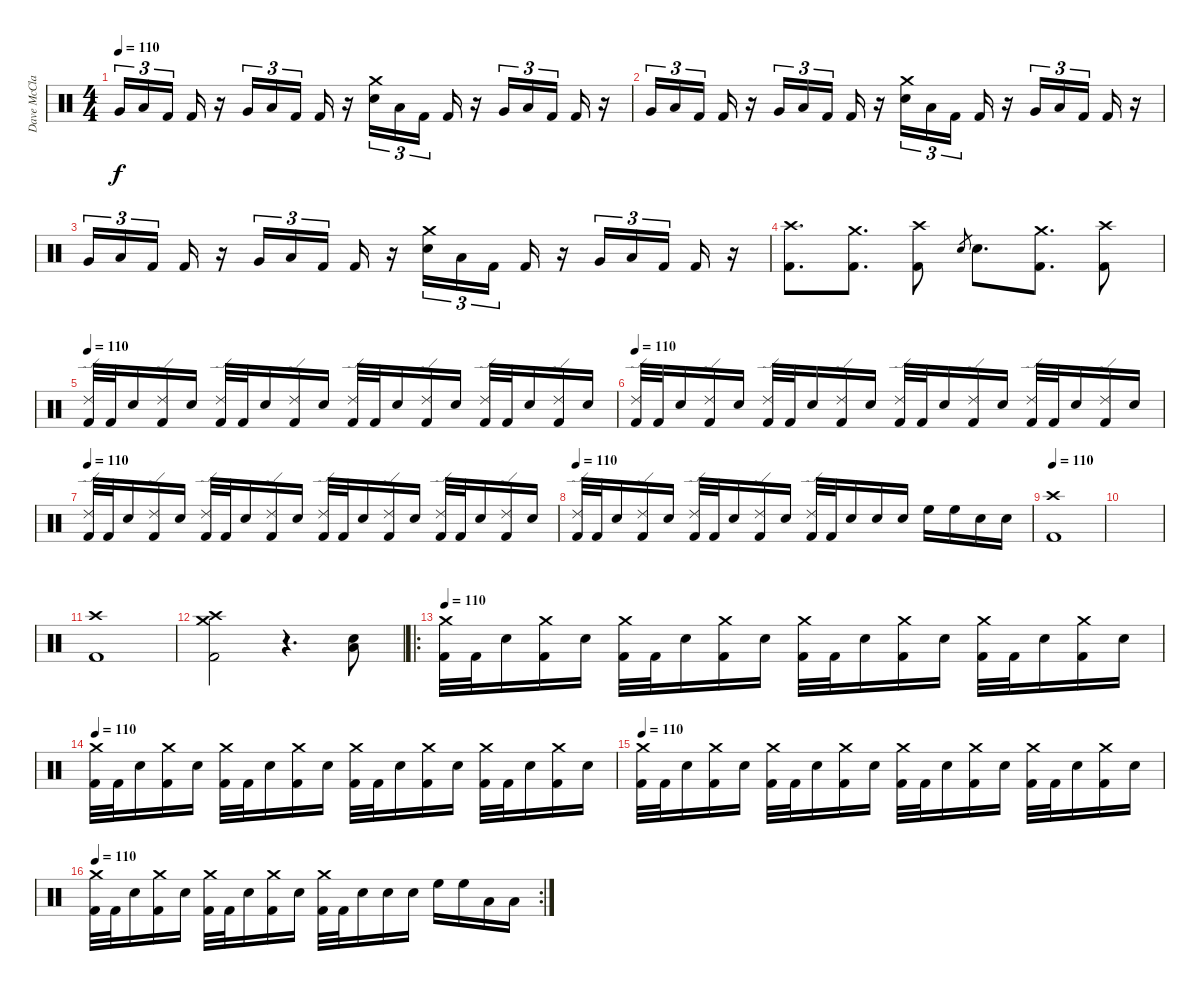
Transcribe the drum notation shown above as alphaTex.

\track ("Dave McClain" "Dave McCla") {instrument percussion}
\staff {score}
\articulation defaults
\ts (4 4)
\tempo 110
\clef neutral
\ks c "Very Low Tom (hit)".16{tu (3 2) dy f} "Low Floor Tom (hit)".16{tu (3 2)} "Kick (hit) 2".16{tu (3 2)} "Kick (hit) 2".16
r.16 "Very Low Tom (hit)".16{tu (3 2)} "Low Floor Tom (hit)".16{tu (3 2)} "Kick (hit) 2".16{tu (3 2)} "Kick (hit) 2".16 r.16 ("Crash medium (hit)" "Snare (hit) 2").16{tu (3 2)} "Low Floor Tom (hit)".16{tu (3 2)} "Kick (hit) 2".16{tu (3 2)} "Kick (hit) 2".16 r.16 "Very Low Tom (hit)".16{tu (3 2)} "Low Floor Tom (hit)".16{tu (3 2)} "Kick (hit) 2".16{tu (3 2)} "Kick (hit) 2".16 r.16 |
"Very Low Tom (hit)".16{tu (3 2)} "Low Floor Tom (hit)".16{tu (3 2)} "Kick (hit) 2".16{tu (3 2)} "Kick (hit) 2".16 r.16 "Very Low Tom (hit)".16{tu (3 2)} "Low Floor Tom (hit)".16{tu (3 2)} "Kick (hit) 2".16{tu (3 2)} "Kick (hit) 2".16 r.16 ("Crash medium (hit)" "Snare (hit) 2").16{tu (3 2)} "Low Floor Tom (hit)".16{tu (3 2)} "Kick (hit) 2".16{tu (3 2)} "Kick (hit) 2".16 r.16 "Very Low Tom (hit)".16{tu (3 2)} "Low Floor Tom (hit)".16{tu (3 2)} "Kick (hit) 2".16{tu (3 2)} "Kick (hit) 2".16 r.16 |
"Very Low Tom (hit)".16{tu (3 2)} "Low Floor Tom (hit)".16{tu (3 2)} "Kick (hit) 2".16{tu (3 2)} "Kick (hit) 2".16 r.16 "Very Low Tom (hit)".16{tu (3 2)} "Low Floor Tom (hit)".16{tu (3 2)} "Kick (hit) 2".16{tu (3 2)} "Kick (hit) 2".16 r.16 ("Crash medium (hit)" "Snare (hit) 2").16{tu (3 2)} "Low Floor Tom (hit)".16{tu (3 2)} "Kick (hit) 2".16{tu (3 2)} "Kick (hit) 2".16 r.16 "Very Low Tom (hit)".16{tu (3 2)} "Low Floor Tom (hit)".16{tu (3 2)} "Kick (hit) 2".16{tu (3 2)} "Kick (hit) 2".16 r.16 |
("Crash high (hit)" "Kick (hit) 2").8{d} ("Crash medium (hit)" "Kick (hit) 2").8{d} ("Crash high (hit)" "Kick (hit) 2").8 "Snare (hit) 2".8{gr} "Snare (hit) 2".8{d} ("Crash medium (hit)" "Kick (hit) 2").8{d} ("Crash high (hit)" "Kick (hit) 2").8 |
\tempo 110
("Ride (edge) 2" "Kick (hit) 2").32 "Kick (hit) 2".32 "Electric Snare (hit)".16 ("Ride (edge) 2" "Kick (hit) 2").16 "Electric Snare (hit)".16 ("Ride (edge) 2" "Kick (hit) 2").32 "Kick (hit) 2".32 "Electric Snare (hit)".16 ("Ride (edge) 2" "Kick (hit) 2").16 "Electric Snare (hit)".16 ("Ride (edge) 2" "Kick (hit) 2").32 "Kick (hit) 2".32 "Electric Snare (hit)".16 ("Ride (edge) 2" "Kick (hit) 2").16 "Electric Snare (hit)".16 ("Ride (edge) 2" "Kick (hit) 2").32 "Kick (hit) 2".32 "Electric Snare (hit)".16 ("Ride (edge) 2" "Kick (hit) 2").16 "Electric Snare (hit)".16 |
\tempo 110
("Ride (edge) 2" "Kick (hit) 2").32 "Kick (hit) 2".32 "Electric Snare (hit)".16 ("Ride (edge) 2" "Kick (hit) 2").16 "Electric Snare (hit)".16 ("Ride (edge) 2" "Kick (hit) 2").32 "Kick (hit) 2".32 "Electric Snare (hit)".16 ("Ride (edge) 2" "Kick (hit) 2").16 "Electric Snare (hit)".16 ("Ride (edge) 2" "Kick (hit) 2").32 "Kick (hit) 2".32 "Electric Snare (hit)".16 ("Ride (edge) 2" "Kick (hit) 2").16 "Electric Snare (hit)".16 ("Ride (edge) 2" "Kick (hit) 2").32 "Kick (hit) 2".32 "Electric Snare (hit)".16 ("Ride (edge) 2" "Kick (hit) 2").16 "Electric Snare (hit)".16 |
\tempo 110
("Ride (edge) 2" "Kick (hit) 2").32 "Kick (hit) 2".32 "Electric Snare (hit)".16 ("Ride (edge) 2" "Kick (hit) 2").16 "Electric Snare (hit)".16 ("Ride (edge) 2" "Kick (hit) 2").32 "Kick (hit) 2".32 "Electric Snare (hit)".16 ("Ride (edge) 2" "Kick (hit) 2").16 "Electric Snare (hit)".16 ("Ride (edge) 2" "Kick (hit) 2").32 "Kick (hit) 2".32 "Electric Snare (hit)".16 ("Ride (edge) 2" "Kick (hit) 2").16 "Electric Snare (hit)".16 ("Ride (edge) 2" "Kick (hit) 2").32 "Kick (hit) 2".32 "Electric Snare (hit)".16 ("Ride (edge) 2" "Kick (hit) 2").16 "Electric Snare (hit)".16 |
\tempo 110
("Ride (edge) 2" "Kick (hit) 2").32 "Kick (hit) 2".32 "Electric Snare (hit)".16 ("Ride (edge) 2" "Kick (hit) 2").16 "Electric Snare (hit)".16 ("Ride (edge) 2" "Kick (hit) 2").32 "Kick (hit) 2".32 "Electric Snare (hit)".16 ("Ride (edge) 2" "Kick (hit) 2").16 "Electric Snare (hit)".16 ("Ride (edge) 2" "Kick (hit) 2").32 "Kick (hit) 2".32 "Electric Snare (hit)".16 "Electric Snare (hit)".16 "Electric Snare (hit)".16 "High Floor Tom (hit)".16 "High Floor Tom (hit)".16 "Electric Snare (hit)".16 "Electric Snare (hit)".16 |
\tempo 110
("Crash high (hit)" "Kick (hit) 2").1 |
|
("Crash high (hit)" "Kick (hit) 2").1 |
("Crash medium (hit)" "Crash high (hit)" "Kick (hit) 2").2 r.4{d} ("Electric Snare (hit)" "Low Floor Tom (hit)").8 |
\ro
\tempo 110
("Crash medium (hit)" "Kick (hit) 2").32 "Kick (hit) 2".32 "Electric Snare (hit)".16 ("Crash medium (hit)" "Kick (hit) 2").16 "Electric Snare (hit)".16 ("Crash medium (hit)" "Kick (hit) 2").32 "Kick (hit) 2".32 "Electric Snare (hit)".16 ("Crash medium (hit)" "Kick (hit) 2").16 "Electric Snare (hit)".16 ("Crash medium (hit)" "Kick (hit) 2").32 "Kick (hit) 2".32 "Electric Snare (hit)".16 ("Crash medium (hit)" "Kick (hit) 2").16 "Electric Snare (hit)".16 ("Crash medium (hit)" "Kick (hit) 2").32 "Kick (hit) 2".32 "Electric Snare (hit)".16 ("Crash medium (hit)" "Kick (hit) 2").16 "Electric Snare (hit)".16 |
\tempo 110
("Crash medium (hit)" "Kick (hit) 2").32 "Kick (hit) 2".32 "Electric Snare (hit)".16 ("Crash medium (hit)" "Kick (hit) 2").16 "Electric Snare (hit)".16 ("Crash medium (hit)" "Kick (hit) 2").32 "Kick (hit) 2".32 "Electric Snare (hit)".16 ("Crash medium (hit)" "Kick (hit) 2").16 "Electric Snare (hit)".16 ("Crash medium (hit)" "Kick (hit) 2").32 "Kick (hit) 2".32 "Electric Snare (hit)".16 ("Crash medium (hit)" "Kick (hit) 2").16 "Electric Snare (hit)".16 ("Crash medium (hit)" "Kick (hit) 2").32 "Kick (hit) 2".32 "Electric Snare (hit)".16 ("Crash medium (hit)" "Kick (hit) 2").16 "Electric Snare (hit)".16 |
\tempo 110
("Crash medium (hit)" "Kick (hit) 2").32 "Kick (hit) 2".32 "Electric Snare (hit)".16 ("Crash medium (hit)" "Kick (hit) 2").16 "Electric Snare (hit)".16 ("Crash medium (hit)" "Kick (hit) 2").32 "Kick (hit) 2".32 "Electric Snare (hit)".16 ("Crash medium (hit)" "Kick (hit) 2").16 "Electric Snare (hit)".16 ("Crash medium (hit)" "Kick (hit) 2").32 "Kick (hit) 2".32 "Electric Snare (hit)".16 ("Crash medium (hit)" "Kick (hit) 2").16 "Electric Snare (hit)".16 ("Crash medium (hit)" "Kick (hit) 2").32 "Kick (hit) 2".32 "Electric Snare (hit)".16 ("Crash medium (hit)" "Kick (hit) 2").16 "Electric Snare (hit)".16 |
\rc 2
\tempo 110
("Crash medium (hit)" "Kick (hit) 2").32 "Kick (hit) 2".32 "Electric Snare (hit)".16 ("Crash medium (hit)" "Kick (hit) 2").16 "Electric Snare (hit)".16 ("Crash medium (hit)" "Kick (hit) 2").32 "Kick (hit) 2".32 "Electric Snare (hit)".16 ("Crash medium (hit)" "Kick (hit) 2").16 "Electric Snare (hit)".16 ("Crash medium (hit)" "Kick (hit) 2").32 "Kick (hit) 2".32 "Electric Snare (hit)".16 "Electric Snare (hit)".16 "Electric Snare (hit)".16 "High Floor Tom (hit)".16 "High Floor Tom (hit)".16 "Low Tom (hit)".16 "Low Tom (hit)".16
